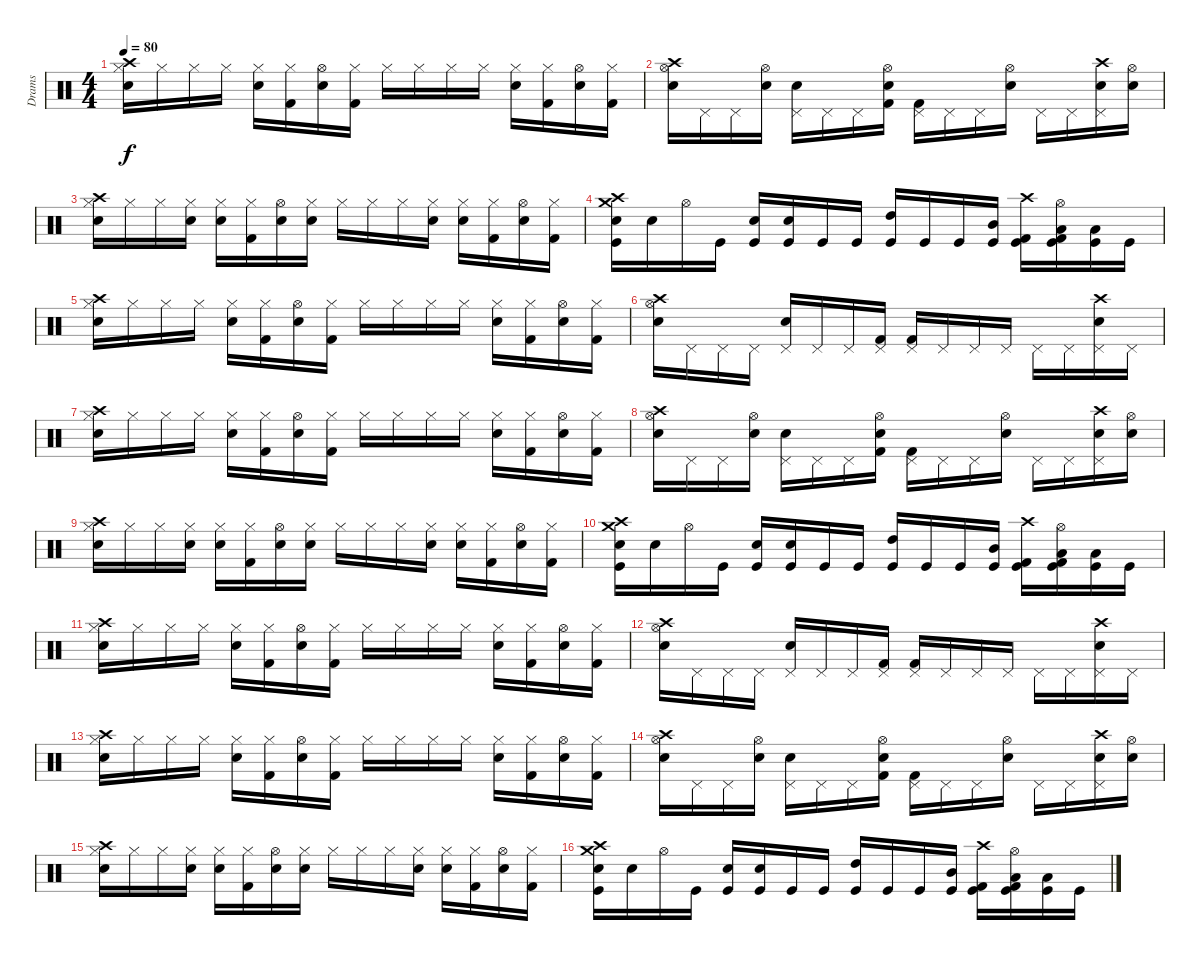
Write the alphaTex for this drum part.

\track ("Drams" "Drams") {instrument percussion}
\staff {score}
\articulation defaults
\ts (4 4)
\tempo 80
\clef neutral
\ks c
("Crash high (hit)" "Snare (hit) 2" "Hi-Hat (closed)").16{dy f} "Hi-Hat (closed)".16 "Hi-Hat (closed)".16 "Hi-Hat (closed)".16 ("Snare (hit) 2" "Hi-Hat (closed)").16 ("Hi-Hat (closed)" "Kick (hit) 2").16 ("Snare (hit) 2" "Hi-Hat (open)").16 ("Hi-Hat (closed)" "Kick (hit) 2").16 "Hi-Hat (closed)".16 "Hi-Hat (closed)".16 "Hi-Hat (closed)".16 "Hi-Hat (closed)".16 ("Snare (hit) 2" "Hi-Hat (closed)").16 ("Hi-Hat (closed)" "Kick (hit) 2").16 ("Snare (hit) 2" "Hi-Hat (open)").16 ("Hi-Hat (closed)" "Kick (hit) 2").16 |
("Hi-Hat (open)" "Crash high (hit)" "Snare (hit) 2").16 "Pedal Hi-Hat (hit)".16 "Pedal Hi-Hat (hit)".16 ("Hi-Hat (open)" "Snare (hit) 2").16 ("Pedal Hi-Hat (hit)" "Snare (hit) 2").16 "Pedal Hi-Hat (hit)".16 "Pedal Hi-Hat (hit)".16 ("Hi-Hat (open)" "Snare (hit) 2" "Kick (hit) 2").16 ("Pedal Hi-Hat (hit)" "Kick (hit) 2").16 "Pedal Hi-Hat (hit)".16 "Pedal Hi-Hat (hit)".16 ("Hi-Hat (open)" "Snare (hit) 2").16 "Pedal Hi-Hat (hit)".16 "Pedal Hi-Hat (hit)".16 ("Pedal Hi-Hat (hit)" "Crash high (hit)" "Snare (hit) 2").16 ("Hi-Hat (open)" "Snare (hit) 2").16 |
("Crash high (hit)" "Snare (hit) 2" "Hi-Hat (closed)").16 "Hi-Hat (closed)".16 "Hi-Hat (closed)".16 ("Snare (hit) 2" "Hi-Hat (closed)").16 ("Snare (hit) 2" "Hi-Hat (closed)").16 ("Hi-Hat (closed)" "Kick (hit) 2").16 ("Snare (hit) 2" "Hi-Hat (open)").16 ("Hi-Hat (closed)" "Snare (hit) 2").16 "Hi-Hat (closed)".16 "Hi-Hat (closed)".16 "Hi-Hat (closed)".16 ("Snare (hit) 2" "Hi-Hat (closed)").16 ("Snare (hit) 2" "Hi-Hat (closed)").16 ("Hi-Hat (closed)" "Kick (hit) 2").16 ("Snare (hit) 2" "Hi-Hat (open)").16 ("Hi-Hat (closed)" "Kick (hit) 2").16 |
("Crash high (hit)" "Crash medium (hit)" "Kick (hit)" "Snare (hit) 2").16 "Snare (hit) 2".16 "Hi-Hat (open)".16 "Kick (hit)".16 ("Snare (hit) 2" "Kick (hit)").16 ("Snare (hit) 2" "Kick (hit)").16 "Kick (hit)".16 "Kick (hit)".16 ("High Tom (hit)" "Kick (hit)").16 "Kick (hit)".16 "Kick (hit)".16 ("Mid Tom (hit)" "Kick (hit)").16 ("Kick (hit) 2" "Kick (hit)" "Crash high (hit)").16 ("Low Tom (hit)" "Kick (hit) 2" "Kick (hit)" "Hi-Hat (open)").16 ("Low Tom (hit)" "Kick (hit)").16 "Kick (hit)".16 |
("Crash high (hit)" "Snare (hit) 2" "Hi-Hat (closed)").16 "Hi-Hat (closed)".16 "Hi-Hat (closed)".16 "Hi-Hat (closed)".16 ("Snare (hit) 2" "Hi-Hat (closed)").16 ("Hi-Hat (closed)" "Kick (hit) 2").16 ("Snare (hit) 2" "Hi-Hat (open)").16 ("Hi-Hat (closed)" "Kick (hit) 2").16 "Hi-Hat (closed)".16 "Hi-Hat (closed)".16 "Hi-Hat (closed)".16 "Hi-Hat (closed)".16 ("Snare (hit) 2" "Hi-Hat (closed)").16 ("Hi-Hat (closed)" "Kick (hit) 2").16 ("Snare (hit) 2" "Hi-Hat (open)").16 ("Hi-Hat (closed)" "Kick (hit) 2").16 |
("Hi-Hat (open)" "Crash high (hit)" "Snare (hit) 2").16 "Pedal Hi-Hat (hit)".16 "Pedal Hi-Hat (hit)".16 "Pedal Hi-Hat (hit)".16 ("Pedal Hi-Hat (hit)" "Snare (hit) 2").16 "Pedal Hi-Hat (hit)".16 "Pedal Hi-Hat (hit)".16 ("Pedal Hi-Hat (hit)" "Kick (hit) 2").16 ("Pedal Hi-Hat (hit)" "Kick (hit) 2").16 "Pedal Hi-Hat (hit)".16 "Pedal Hi-Hat (hit)".16 "Pedal Hi-Hat (hit)".16 "Pedal Hi-Hat (hit)".16 "Pedal Hi-Hat (hit)".16 ("Pedal Hi-Hat (hit)" "Crash high (hit)" "Snare (hit) 2").16 "Pedal Hi-Hat (hit)".16 |
("Crash high (hit)" "Snare (hit) 2" "Hi-Hat (closed)").16 "Hi-Hat (closed)".16 "Hi-Hat (closed)".16 "Hi-Hat (closed)".16 ("Snare (hit) 2" "Hi-Hat (closed)").16 ("Hi-Hat (closed)" "Kick (hit) 2").16 ("Snare (hit) 2" "Hi-Hat (open)").16 ("Hi-Hat (closed)" "Kick (hit) 2").16 "Hi-Hat (closed)".16 "Hi-Hat (closed)".16 "Hi-Hat (closed)".16 "Hi-Hat (closed)".16 ("Snare (hit) 2" "Hi-Hat (closed)").16 ("Hi-Hat (closed)" "Kick (hit) 2").16 ("Snare (hit) 2" "Hi-Hat (open)").16 ("Hi-Hat (closed)" "Kick (hit) 2").16 |
("Hi-Hat (open)" "Crash high (hit)" "Snare (hit) 2").16 "Pedal Hi-Hat (hit)".16 "Pedal Hi-Hat (hit)".16 ("Hi-Hat (open)" "Snare (hit) 2").16 ("Pedal Hi-Hat (hit)" "Snare (hit) 2").16 "Pedal Hi-Hat (hit)".16 "Pedal Hi-Hat (hit)".16 ("Hi-Hat (open)" "Snare (hit) 2" "Kick (hit) 2").16 ("Pedal Hi-Hat (hit)" "Kick (hit) 2").16 "Pedal Hi-Hat (hit)".16 "Pedal Hi-Hat (hit)".16 ("Hi-Hat (open)" "Snare (hit) 2").16 "Pedal Hi-Hat (hit)".16 "Pedal Hi-Hat (hit)".16 ("Pedal Hi-Hat (hit)" "Crash high (hit)" "Snare (hit) 2").16 ("Hi-Hat (open)" "Snare (hit) 2").16 |
("Crash high (hit)" "Snare (hit) 2" "Hi-Hat (closed)").16 "Hi-Hat (closed)".16 "Hi-Hat (closed)".16 ("Snare (hit) 2" "Hi-Hat (closed)").16 ("Snare (hit) 2" "Hi-Hat (closed)").16 ("Hi-Hat (closed)" "Kick (hit) 2").16 ("Snare (hit) 2" "Hi-Hat (open)").16 ("Hi-Hat (closed)" "Snare (hit) 2").16 "Hi-Hat (closed)".16 "Hi-Hat (closed)".16 "Hi-Hat (closed)".16 ("Snare (hit) 2" "Hi-Hat (closed)").16 ("Snare (hit) 2" "Hi-Hat (closed)").16 ("Hi-Hat (closed)" "Kick (hit) 2").16 ("Snare (hit) 2" "Hi-Hat (open)").16 ("Hi-Hat (closed)" "Kick (hit) 2").16 |
("Crash high (hit)" "Crash medium (hit)" "Kick (hit)" "Snare (hit) 2").16 "Snare (hit) 2".16 "Hi-Hat (open)".16 "Kick (hit)".16 ("Snare (hit) 2" "Kick (hit)").16 ("Snare (hit) 2" "Kick (hit)").16 "Kick (hit)".16 "Kick (hit)".16 ("High Tom (hit)" "Kick (hit)").16 "Kick (hit)".16 "Kick (hit)".16 ("Mid Tom (hit)" "Kick (hit)").16 ("Kick (hit) 2" "Kick (hit)" "Crash high (hit)").16 ("Low Tom (hit)" "Kick (hit) 2" "Kick (hit)" "Hi-Hat (open)").16 ("Low Tom (hit)" "Kick (hit)").16 "Kick (hit)".16 |
("Crash high (hit)" "Snare (hit) 2" "Hi-Hat (closed)").16 "Hi-Hat (closed)".16 "Hi-Hat (closed)".16 "Hi-Hat (closed)".16 ("Snare (hit) 2" "Hi-Hat (closed)").16 ("Hi-Hat (closed)" "Kick (hit) 2").16 ("Snare (hit) 2" "Hi-Hat (open)").16 ("Hi-Hat (closed)" "Kick (hit) 2").16 "Hi-Hat (closed)".16 "Hi-Hat (closed)".16 "Hi-Hat (closed)".16 "Hi-Hat (closed)".16 ("Snare (hit) 2" "Hi-Hat (closed)").16 ("Hi-Hat (closed)" "Kick (hit) 2").16 ("Snare (hit) 2" "Hi-Hat (open)").16 ("Hi-Hat (closed)" "Kick (hit) 2").16 |
("Hi-Hat (open)" "Crash high (hit)" "Snare (hit) 2").16 "Pedal Hi-Hat (hit)".16 "Pedal Hi-Hat (hit)".16 "Pedal Hi-Hat (hit)".16 ("Pedal Hi-Hat (hit)" "Snare (hit) 2").16 "Pedal Hi-Hat (hit)".16 "Pedal Hi-Hat (hit)".16 ("Pedal Hi-Hat (hit)" "Kick (hit) 2").16 ("Pedal Hi-Hat (hit)" "Kick (hit) 2").16 "Pedal Hi-Hat (hit)".16 "Pedal Hi-Hat (hit)".16 "Pedal Hi-Hat (hit)".16 "Pedal Hi-Hat (hit)".16 "Pedal Hi-Hat (hit)".16 ("Pedal Hi-Hat (hit)" "Crash high (hit)" "Snare (hit) 2").16 "Pedal Hi-Hat (hit)".16 |
("Crash high (hit)" "Snare (hit) 2" "Hi-Hat (closed)").16 "Hi-Hat (closed)".16 "Hi-Hat (closed)".16 "Hi-Hat (closed)".16 ("Snare (hit) 2" "Hi-Hat (closed)").16 ("Hi-Hat (closed)" "Kick (hit) 2").16 ("Snare (hit) 2" "Hi-Hat (open)").16 ("Hi-Hat (closed)" "Kick (hit) 2").16 "Hi-Hat (closed)".16 "Hi-Hat (closed)".16 "Hi-Hat (closed)".16 "Hi-Hat (closed)".16 ("Snare (hit) 2" "Hi-Hat (closed)").16 ("Hi-Hat (closed)" "Kick (hit) 2").16 ("Snare (hit) 2" "Hi-Hat (open)").16 ("Hi-Hat (closed)" "Kick (hit) 2").16 |
("Hi-Hat (open)" "Crash high (hit)" "Snare (hit) 2").16 "Pedal Hi-Hat (hit)".16 "Pedal Hi-Hat (hit)".16 ("Hi-Hat (open)" "Snare (hit) 2").16 ("Pedal Hi-Hat (hit)" "Snare (hit) 2").16 "Pedal Hi-Hat (hit)".16 "Pedal Hi-Hat (hit)".16 ("Hi-Hat (open)" "Snare (hit) 2" "Kick (hit) 2").16 ("Pedal Hi-Hat (hit)" "Kick (hit) 2").16 "Pedal Hi-Hat (hit)".16 "Pedal Hi-Hat (hit)".16 ("Hi-Hat (open)" "Snare (hit) 2").16 "Pedal Hi-Hat (hit)".16 "Pedal Hi-Hat (hit)".16 ("Pedal Hi-Hat (hit)" "Crash high (hit)" "Snare (hit) 2").16 ("Hi-Hat (open)" "Snare (hit) 2").16 |
("Crash high (hit)" "Snare (hit) 2" "Hi-Hat (closed)").16 "Hi-Hat (closed)".16 "Hi-Hat (closed)".16 ("Snare (hit) 2" "Hi-Hat (closed)").16 ("Snare (hit) 2" "Hi-Hat (closed)").16 ("Hi-Hat (closed)" "Kick (hit) 2").16 ("Snare (hit) 2" "Hi-Hat (open)").16 ("Hi-Hat (closed)" "Snare (hit) 2").16 "Hi-Hat (closed)".16 "Hi-Hat (closed)".16 "Hi-Hat (closed)".16 ("Snare (hit) 2" "Hi-Hat (closed)").16 ("Snare (hit) 2" "Hi-Hat (closed)").16 ("Hi-Hat (closed)" "Kick (hit) 2").16 ("Snare (hit) 2" "Hi-Hat (open)").16 ("Hi-Hat (closed)" "Kick (hit) 2").16 |
("Crash high (hit)" "Crash medium (hit)" "Kick (hit)" "Snare (hit) 2").16 "Snare (hit) 2".16 "Hi-Hat (open)".16 "Kick (hit)".16 ("Snare (hit) 2" "Kick (hit)").16 ("Snare (hit) 2" "Kick (hit)").16 "Kick (hit)".16 "Kick (hit)".16 ("High Tom (hit)" "Kick (hit)").16 "Kick (hit)".16 "Kick (hit)".16 ("Mid Tom (hit)" "Kick (hit)").16 ("Kick (hit) 2" "Kick (hit)" "Crash high (hit)").16 ("Low Tom (hit)" "Kick (hit) 2" "Kick (hit)" "Hi-Hat (open)").16 ("Low Tom (hit)" "Kick (hit)").16 "Kick (hit)".16
